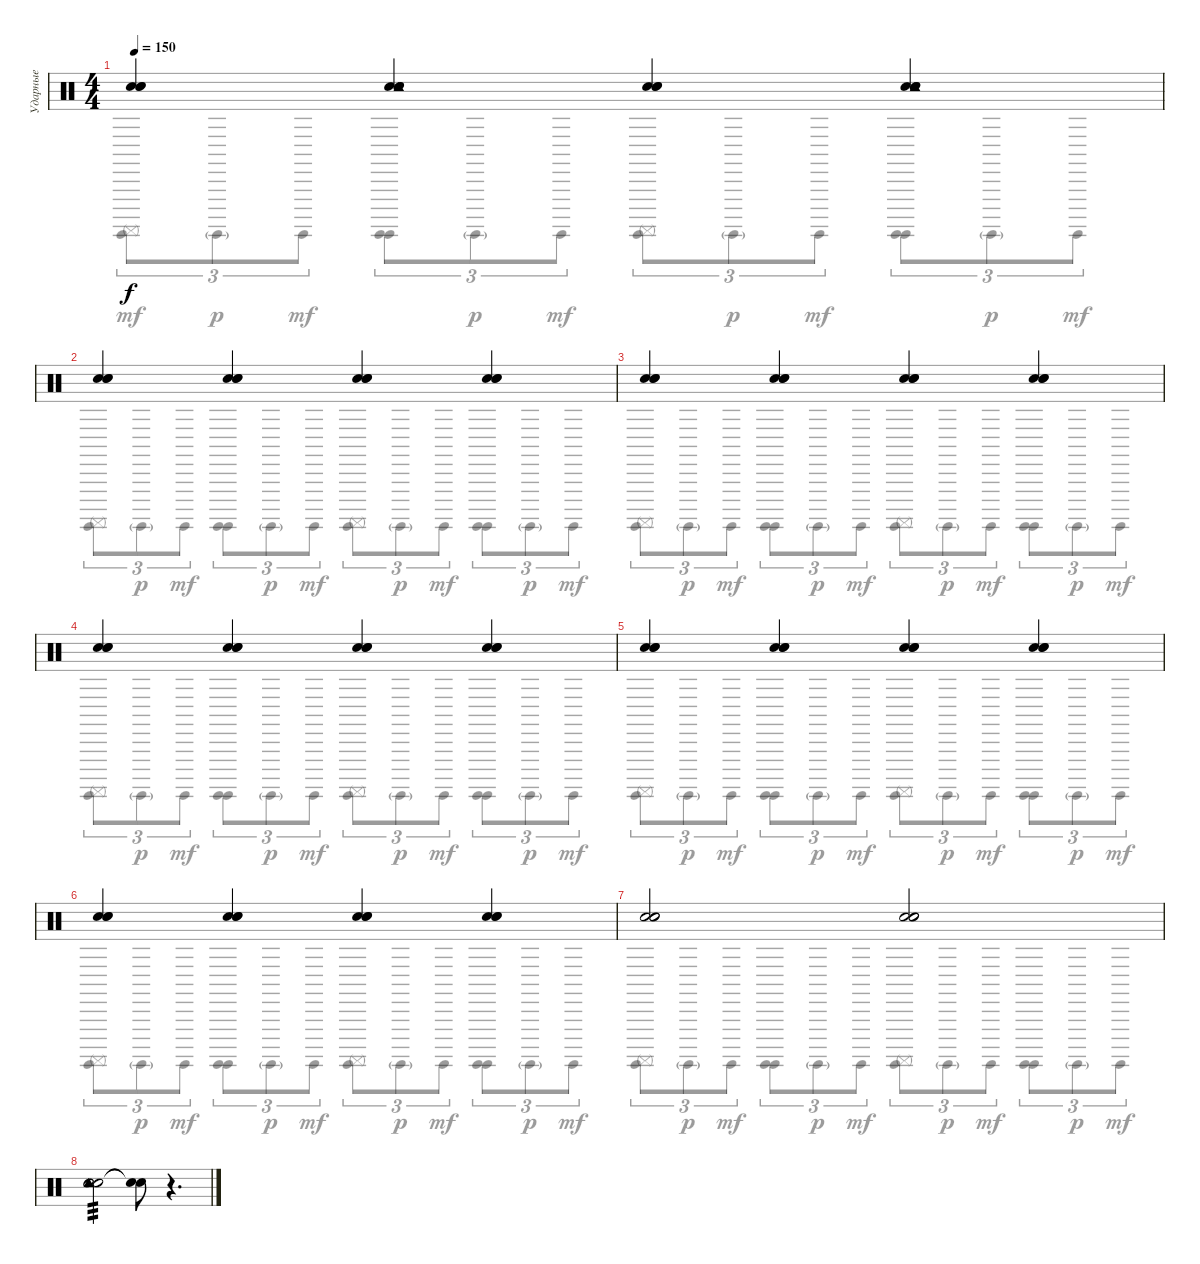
\track ("Ударные" "Ударные") {instrument percussion}
\staff {score}
\articulation defaults
\voice
\ts (4 4)
\tempo 150
\clef neutral
\ks c
("Hand Clap (hit)" "Hand Clap (hit)" "Hand Clap (hit)").4{dy f} ("Hand Clap (hit)" "Hand Clap (hit)" "Hand Clap (hit)" "Tambourine (hit)" "Tambourine (hit)").4 ("Hand Clap (hit)" "Hand Clap (hit)" "Hand Clap (hit)").4 ("Hand Clap (hit)" "Hand Clap (hit)" "Hand Clap (hit)" "Tambourine (hit)" "Tambourine (hit)").4 |
("Hand Clap (hit)" "Hand Clap (hit)" "Hand Clap (hit)").4 ("Hand Clap (hit)" "Hand Clap (hit)" "Hand Clap (hit)").4 ("Hand Clap (hit)" "Hand Clap (hit)" "Hand Clap (hit)").4 ("Hand Clap (hit)" "Hand Clap (hit)" "Hand Clap (hit)").4 |
("Hand Clap (hit)" "Hand Clap (hit)" "Hand Clap (hit)").4 ("Hand Clap (hit)" "Hand Clap (hit)" "Hand Clap (hit)").4 ("Hand Clap (hit)" "Hand Clap (hit)" "Hand Clap (hit)").4 ("Hand Clap (hit)" "Hand Clap (hit)" "Hand Clap (hit)").4 |
("Hand Clap (hit)" "Hand Clap (hit)" "Hand Clap (hit)").4 ("Hand Clap (hit)" "Hand Clap (hit)" "Hand Clap (hit)").4 ("Hand Clap (hit)" "Hand Clap (hit)" "Hand Clap (hit)").4 ("Hand Clap (hit)" "Hand Clap (hit)" "Hand Clap (hit)").4 |
("Hand Clap (hit)" "Hand Clap (hit)" "Hand Clap (hit)").4 ("Hand Clap (hit)" "Hand Clap (hit)" "Hand Clap (hit)").4 ("Hand Clap (hit)" "Hand Clap (hit)" "Hand Clap (hit)").4 ("Hand Clap (hit)" "Hand Clap (hit)" "Hand Clap (hit)").4 |
("Hand Clap (hit)" "Hand Clap (hit)" "Hand Clap (hit)").4 ("Hand Clap (hit)" "Hand Clap (hit)" "Hand Clap (hit)").4 ("Hand Clap (hit)" "Hand Clap (hit)" "Hand Clap (hit)").4 ("Hand Clap (hit)" "Hand Clap (hit)" "Hand Clap (hit)").4 |
("Hand Clap (hit)" "Hand Clap (hit)" "Hand Clap (hit)").2 ("Hand Clap (hit)" "Hand Clap (hit)" "Hand Clap (hit)").2 |
("Hand Clap (hit)" "Hand Clap (hit)" "Hand Clap (hit)" "Tambourine (hit)" "Tambourine (hit)").2{tp 3} ("Snare (hit)"{t} "Snare (hit)"{t}).8 r.4{d}
\voice
\clef neutral
\ottava regular
\simile none
\ks c
("Surdo (hit)" "Surdo (mute)").8{tu (3 2) dy mf} "Surdo (hit)"{g}.8{tu (3 2) dy p} "Surdo (hit)".8{tu (3 2) dy mf} ("Surdo (hit)" "Surdo (hit)").8{tu (3 2)} "Surdo (hit)"{g}.8{tu (3 2) dy p} "Surdo (hit)".8{tu (3 2) dy mf} ("Surdo (hit)" "Surdo (mute)").8{tu (3 2)} "Surdo (hit)"{g}.8{tu (3 2) dy p} "Surdo (hit)".8{tu (3 2) dy mf} ("Surdo (hit)" "Surdo (hit)").8{tu (3 2)} "Surdo (hit)"{g}.8{tu (3 2) dy p} "Surdo (hit)".8{tu (3 2) dy mf} |
("Surdo (hit)" "Surdo (mute)").8{tu (3 2)} "Surdo (hit)"{g}.8{tu (3 2) dy p} "Surdo (hit)".8{tu (3 2) dy mf} ("Surdo (hit)" "Surdo (hit)").8{tu (3 2)} "Surdo (hit)"{g}.8{tu (3 2) dy p} "Surdo (hit)".8{tu (3 2) dy mf} ("Surdo (hit)" "Surdo (mute)").8{tu (3 2)} "Surdo (hit)"{g}.8{tu (3 2) dy p} "Surdo (hit)".8{tu (3 2) dy mf} ("Surdo (hit)" "Surdo (hit)").8{tu (3 2)} "Surdo (hit)"{g}.8{tu (3 2) dy p} "Surdo (hit)".8{tu (3 2) dy mf} |
("Surdo (hit)" "Surdo (mute)").8{tu (3 2)} "Surdo (hit)"{g}.8{tu (3 2) dy p} "Surdo (hit)".8{tu (3 2) dy mf} ("Surdo (hit)" "Surdo (hit)").8{tu (3 2)} "Surdo (hit)"{g}.8{tu (3 2) dy p} "Surdo (hit)".8{tu (3 2) dy mf} ("Surdo (hit)" "Surdo (mute)").8{tu (3 2)} "Surdo (hit)"{g}.8{tu (3 2) dy p} "Surdo (hit)".8{tu (3 2) dy mf} ("Surdo (hit)" "Surdo (hit)").8{tu (3 2)} "Surdo (hit)"{g}.8{tu (3 2) dy p} "Surdo (hit)".8{tu (3 2) dy mf} |
("Surdo (hit)" "Surdo (mute)").8{tu (3 2)} "Surdo (hit)"{g}.8{tu (3 2) dy p} "Surdo (hit)".8{tu (3 2) dy mf} ("Surdo (hit)" "Surdo (hit)").8{tu (3 2)} "Surdo (hit)"{g}.8{tu (3 2) dy p} "Surdo (hit)".8{tu (3 2) dy mf} ("Surdo (hit)" "Surdo (mute)").8{tu (3 2)} "Surdo (hit)"{g}.8{tu (3 2) dy p} "Surdo (hit)".8{tu (3 2) dy mf} ("Surdo (hit)" "Surdo (hit)").8{tu (3 2)} "Surdo (hit)"{g}.8{tu (3 2) dy p} "Surdo (hit)".8{tu (3 2) dy mf} |
("Surdo (hit)" "Surdo (mute)").8{tu (3 2)} "Surdo (hit)"{g}.8{tu (3 2) dy p} "Surdo (hit)".8{tu (3 2) dy mf} ("Surdo (hit)" "Surdo (hit)").8{tu (3 2)} "Surdo (hit)"{g}.8{tu (3 2) dy p} "Surdo (hit)".8{tu (3 2) dy mf} ("Surdo (hit)" "Surdo (mute)").8{tu (3 2)} "Surdo (hit)"{g}.8{tu (3 2) dy p} "Surdo (hit)".8{tu (3 2) dy mf} ("Surdo (hit)" "Surdo (hit)").8{tu (3 2)} "Surdo (hit)"{g}.8{tu (3 2) dy p} "Surdo (hit)".8{tu (3 2) dy mf} |
("Surdo (hit)" "Surdo (mute)").8{tu (3 2)} "Surdo (hit)"{g}.8{tu (3 2) dy p} "Surdo (hit)".8{tu (3 2) dy mf} ("Surdo (hit)" "Surdo (hit)").8{tu (3 2)} "Surdo (hit)"{g}.8{tu (3 2) dy p} "Surdo (hit)".8{tu (3 2) dy mf} ("Surdo (hit)" "Surdo (mute)").8{tu (3 2)} "Surdo (hit)"{g}.8{tu (3 2) dy p} "Surdo (hit)".8{tu (3 2) dy mf} ("Surdo (hit)" "Surdo (hit)").8{tu (3 2)} "Surdo (hit)"{g}.8{tu (3 2) dy p} "Surdo (hit)".8{tu (3 2) dy mf} |
("Surdo (hit)" "Surdo (mute)").8{tu (3 2)} "Surdo (hit)"{g}.8{tu (3 2) dy p} "Surdo (hit)".8{tu (3 2) dy mf} ("Surdo (hit)" "Surdo (hit)").8{tu (3 2)} "Surdo (hit)"{g}.8{tu (3 2) dy p} "Surdo (hit)".8{tu (3 2) dy mf} ("Surdo (hit)" "Surdo (mute)").8{tu (3 2)} "Surdo (hit)"{g}.8{tu (3 2) dy p} "Surdo (hit)".8{tu (3 2) dy mf} ("Surdo (hit)" "Surdo (hit)").8{tu (3 2)} "Surdo (hit)"{g}.8{tu (3 2) dy p} "Surdo (hit)".8{tu (3 2) dy mf} |
